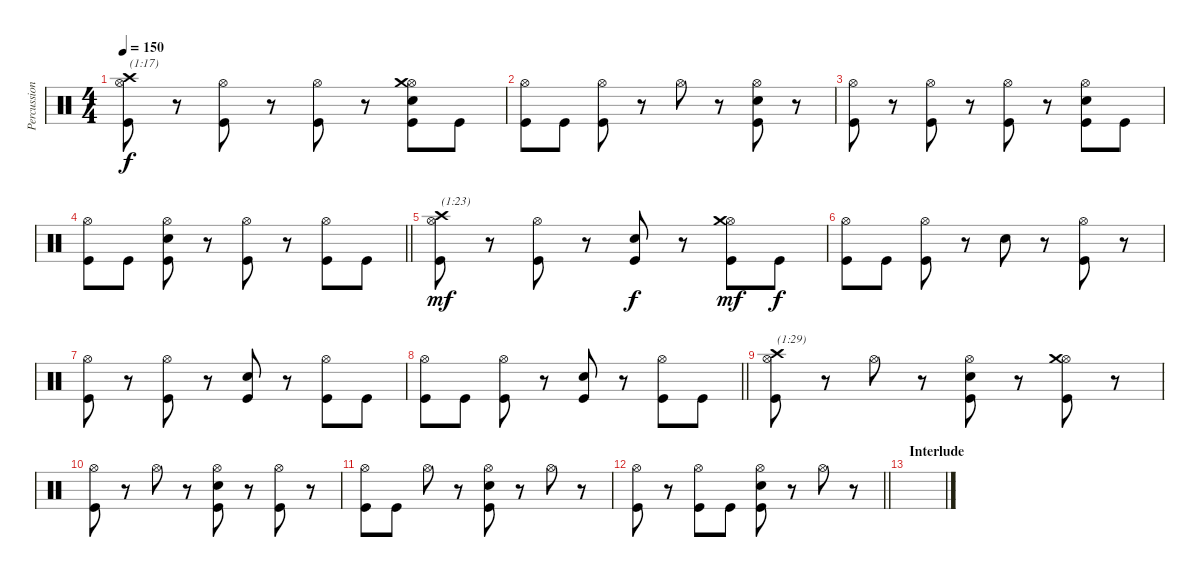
\track ("Percussion" "Percussion") {instrument percussion}
\staff {score}
\articulation defaults
\ts (4 4)
\section ("" "")
\tempo 150
\clef neutral
\ks c
("Hi-Hat (open)" "Crash high (hit)" "Kick (hit)").8{txt "(1:17)" dy f} r.8 ("Hi-Hat (open)" "Kick (hit)").8 r.8 ("Hi-Hat (open)" "Kick (hit)").8 r.8 ("Hi-Hat (open)" "Crash medium (hit)" "Snare (hit) 2" "Kick (hit)").8 "Kick (hit)".8 |
("Hi-Hat (open)" "Kick (hit)").8 "Kick (hit)".8 ("Hi-Hat (open)" "Kick (hit)").8 r.8 "Hi-Hat (open)".8 r.8 ("Hi-Hat (open)" "Snare (hit) 2" "Kick (hit)").8 r.8 |
("Hi-Hat (open)" "Kick (hit)").8 r.8 ("Hi-Hat (open)" "Kick (hit)").8 r.8 ("Hi-Hat (open)" "Kick (hit)").8 r.8 ("Hi-Hat (open)" "Snare (hit) 2" "Kick (hit)").8 "Kick (hit)".8 |
\barLineRight lightlight
("Hi-Hat (open)" "Kick (hit)").8 "Kick (hit)".8 ("Hi-Hat (open)" "Snare (hit) 2" "Kick (hit)").8 r.8 ("Hi-Hat (open)" "Kick (hit)").8 r.8 ("Hi-Hat (open)" "Kick (hit)").8 "Kick (hit)".8 |
\section ("" "")
("Hi-Hat (open)" "Crash high (hit)" "Kick (hit)").8{txt "(1:23)" dy mf} r.8 ("Hi-Hat (open)" "Kick (hit)").8 r.8 ("Snare (hit) 2" "Kick (hit)").8{dy f} r.8 ("Hi-Hat (open)" "Crash medium (hit)" "Kick (hit)").8{dy mf} "Kick (hit)".8{dy f} |
("Hi-Hat (open)" "Kick (hit)").8 "Kick (hit)".8 ("Hi-Hat (open)" "Kick (hit)").8 r.8 "Snare (hit) 2".8 r.8 ("Hi-Hat (open)" "Kick (hit)").8 r.8 |
("Hi-Hat (open)" "Kick (hit)").8 r.8 ("Hi-Hat (open)" "Kick (hit)").8 r.8 ("Snare (hit) 2" "Kick (hit)").8 r.8 ("Hi-Hat (open)" "Kick (hit)").8 "Kick (hit)".8 |
\barLineRight lightlight
("Hi-Hat (open)" "Kick (hit)").8 "Kick (hit)".8 ("Hi-Hat (open)" "Kick (hit)").8 r.8 ("Snare (hit) 2" "Kick (hit)").8 r.8 ("Hi-Hat (open)" "Kick (hit)").8 "Kick (hit)".8 |
\section ("" "")
("Hi-Hat (open)" "Crash high (hit)" "Kick (hit)").8{txt "(1:29)"} r.8 "Hi-Hat (open)".8 r.8 ("Hi-Hat (open)" "Snare (hit) 2" "Kick (hit)").8 r.8 ("Hi-Hat (open)" "Crash medium (hit)" "Kick (hit)").8 r.8 |
("Hi-Hat (open)" "Kick (hit)").8 r.8 "Hi-Hat (open)".8 r.8 ("Hi-Hat (open)" "Snare (hit) 2" "Kick (hit)").8 r.8 ("Hi-Hat (open)" "Kick (hit)").8 r.8 |
("Hi-Hat (open)" "Kick (hit)").8 "Kick (hit)".8 "Hi-Hat (open)".8 r.8 ("Hi-Hat (open)" "Snare (hit) 2" "Kick (hit)").8 r.8 "Hi-Hat (open)".8 r.8 |
\barLineRight lightlight
("Hi-Hat (open)" "Kick (hit)").8 r.8 ("Hi-Hat (open)" "Kick (hit)").8 "Kick (hit)".8 ("Hi-Hat (open)" "Snare (hit) 2" "Kick (hit)").8 r.8 "Hi-Hat (open)".8 r.8 |
\section ("" "Interlude")
